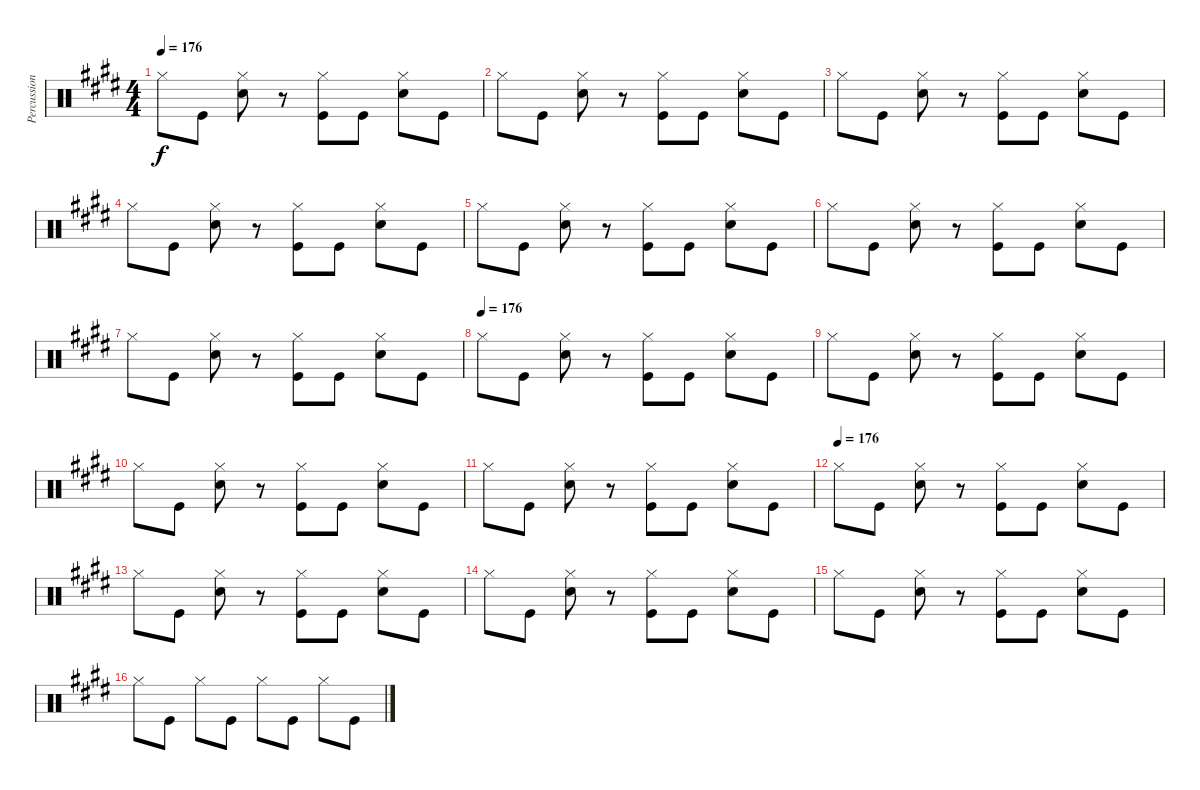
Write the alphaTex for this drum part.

\track ("Percussion" "Percussion") {instrument percussion}
\staff {score}
\articulation defaults
\ts (4 4)
\tempo 176
\clef neutral
\ks c#minor "Hi-Hat (closed)".8{dy f} "Kick (hit)".8
("Hi-Hat (closed)" "Snare (hit) 2").8 r.8 ("Hi-Hat (closed)" "Kick (hit)").8 "Kick (hit)".8 ("Hi-Hat (closed)" "Snare (hit) 2").8 "Kick (hit)".8 |
"Hi-Hat (closed)".8 "Kick (hit)".8 ("Hi-Hat (closed)" "Snare (hit) 2").8 r.8 ("Hi-Hat (closed)" "Kick (hit)").8 "Kick (hit)".8 ("Hi-Hat (closed)" "Snare (hit) 2").8 "Kick (hit)".8 |
"Hi-Hat (closed)".8 "Kick (hit)".8 ("Hi-Hat (closed)" "Snare (hit) 2").8 r.8 ("Hi-Hat (closed)" "Kick (hit)").8 "Kick (hit)".8 ("Hi-Hat (closed)" "Snare (hit) 2").8 "Kick (hit)".8 |
"Hi-Hat (closed)".8 "Kick (hit)".8 ("Hi-Hat (closed)" "Snare (hit) 2").8 r.8 ("Hi-Hat (closed)" "Kick (hit)").8 "Kick (hit)".8 ("Hi-Hat (closed)" "Snare (hit) 2").8 "Kick (hit)".8 |
"Hi-Hat (closed)".8 "Kick (hit)".8 ("Hi-Hat (closed)" "Snare (hit) 2").8 r.8 ("Hi-Hat (closed)" "Kick (hit)").8 "Kick (hit)".8 ("Hi-Hat (closed)" "Snare (hit) 2").8 "Kick (hit)".8 |
"Hi-Hat (closed)".8 "Kick (hit)".8 ("Hi-Hat (closed)" "Snare (hit) 2").8 r.8 ("Hi-Hat (closed)" "Kick (hit)").8 "Kick (hit)".8 ("Hi-Hat (closed)" "Snare (hit) 2").8 "Kick (hit)".8 |
"Hi-Hat (closed)".8 "Kick (hit)".8 ("Hi-Hat (closed)" "Snare (hit) 2").8 r.8 ("Hi-Hat (closed)" "Kick (hit)").8 "Kick (hit)".8 ("Hi-Hat (closed)" "Snare (hit) 2").8 "Kick (hit)".8 |
\tempo (176)
"Hi-Hat (closed)".8 "Kick (hit)".8 ("Hi-Hat (closed)" "Snare (hit) 2").8 r.8 ("Hi-Hat (closed)" "Kick (hit)").8 "Kick (hit)".8 ("Hi-Hat (closed)" "Snare (hit) 2").8 "Kick (hit)".8 |
"Hi-Hat (closed)".8 "Kick (hit)".8 ("Hi-Hat (closed)" "Snare (hit) 2").8 r.8 ("Hi-Hat (closed)" "Kick (hit)").8 "Kick (hit)".8 ("Hi-Hat (closed)" "Snare (hit) 2").8 "Kick (hit)".8 |
"Hi-Hat (closed)".8 "Kick (hit)".8 ("Hi-Hat (closed)" "Snare (hit) 2").8 r.8 ("Hi-Hat (closed)" "Kick (hit)").8 "Kick (hit)".8 ("Hi-Hat (closed)" "Snare (hit) 2").8 "Kick (hit)".8 |
"Hi-Hat (closed)".8 "Kick (hit)".8 ("Hi-Hat (closed)" "Snare (hit) 2").8 r.8 ("Hi-Hat (closed)" "Kick (hit)").8 "Kick (hit)".8 ("Hi-Hat (closed)" "Snare (hit) 2").8 "Kick (hit)".8 |
\tempo (176)
"Hi-Hat (closed)".8 "Kick (hit)".8 ("Hi-Hat (closed)" "Snare (hit) 2").8 r.8 ("Hi-Hat (closed)" "Kick (hit)").8 "Kick (hit)".8 ("Hi-Hat (closed)" "Snare (hit) 2").8 "Kick (hit)".8 |
"Hi-Hat (closed)".8 "Kick (hit)".8 ("Hi-Hat (closed)" "Snare (hit) 2").8 r.8 ("Hi-Hat (closed)" "Kick (hit)").8 "Kick (hit)".8 ("Hi-Hat (closed)" "Snare (hit) 2").8 "Kick (hit)".8 |
"Hi-Hat (closed)".8 "Kick (hit)".8 ("Hi-Hat (closed)" "Snare (hit) 2").8 r.8 ("Hi-Hat (closed)" "Kick (hit)").8 "Kick (hit)".8 ("Hi-Hat (closed)" "Snare (hit) 2").8 "Kick (hit)".8 |
"Hi-Hat (closed)".8 "Kick (hit)".8 ("Hi-Hat (closed)" "Snare (hit) 2").8 r.8 ("Hi-Hat (closed)" "Kick (hit)").8 "Kick (hit)".8 ("Hi-Hat (closed)" "Snare (hit) 2").8 "Kick (hit)".8 |
"Hi-Hat (closed)".8 "Kick (hit)".8 "Hi-Hat (closed)".8 "Kick (hit)".8 "Hi-Hat (closed)".8 "Kick (hit)".8 "Hi-Hat (closed)".8 "Kick (hit)".8
